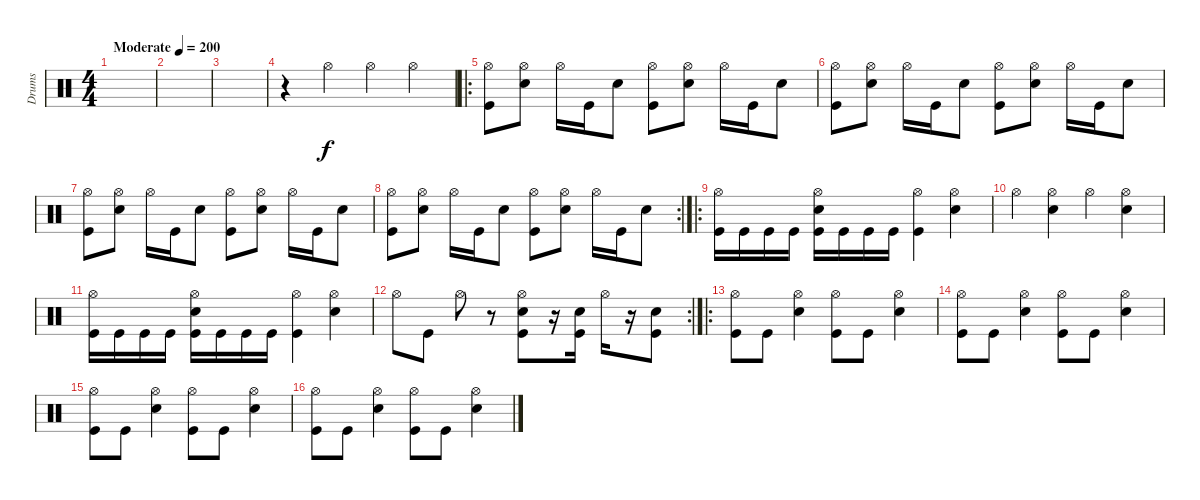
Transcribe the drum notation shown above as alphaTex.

\track ("Drums" "Drums") {instrument percussion}
\staff {score}
\articulation defaults
\ts (4 4)
\tempo (200 "Moderate")
\clef neutral
\ks c
|
|
|
r.4 "Hi-Hat (open)".4 "Hi-Hat (open)".4 "Hi-Hat (open)".4 |
\ro
("Hi-Hat (open)" "Kick (hit)").8 ("Hi-Hat (open)" "Snare (hit) 2").8 "Hi-Hat (open)".16 "Kick (hit)".16 "Snare (hit) 2".8 ("Hi-Hat (open)" "Kick (hit)").8 ("Hi-Hat (open)" "Snare (hit) 2").8 "Hi-Hat (open)".16 "Kick (hit)".16 "Snare (hit) 2".8 |
("Hi-Hat (open)" "Kick (hit)").8 ("Hi-Hat (open)" "Snare (hit) 2").8 "Hi-Hat (open)".16 "Kick (hit)".16 "Snare (hit) 2".8 ("Hi-Hat (open)" "Kick (hit)").8 ("Hi-Hat (open)" "Snare (hit) 2").8 "Hi-Hat (open)".16 "Kick (hit)".16 "Snare (hit) 2".8 |
("Hi-Hat (open)" "Kick (hit)").8 ("Hi-Hat (open)" "Snare (hit) 2").8 "Hi-Hat (open)".16 "Kick (hit)".16 "Snare (hit) 2".8 ("Hi-Hat (open)" "Kick (hit)").8 ("Hi-Hat (open)" "Snare (hit) 2").8 "Hi-Hat (open)".16 "Kick (hit)".16 "Snare (hit) 2".8 |
\rc 2
("Hi-Hat (open)" "Kick (hit)").8 ("Hi-Hat (open)" "Snare (hit) 2").8 "Hi-Hat (open)".16 "Kick (hit)".16 "Snare (hit) 2".8 ("Hi-Hat (open)" "Kick (hit)").8 ("Hi-Hat (open)" "Snare (hit) 2").8 "Hi-Hat (open)".16 "Kick (hit)".16 "Snare (hit) 2".8 |
\ro
("Hi-Hat (open)" "Kick (hit)").16 "Kick (hit)".16 "Kick (hit)".16 "Kick (hit)".16 ("Hi-Hat (open)" "Snare (hit) 2" "Kick (hit)").16 "Kick (hit)".16 "Kick (hit)".16 "Kick (hit)".16 ("Hi-Hat (open)" "Kick (hit)").4 ("Hi-Hat (open)" "Snare (hit) 2").4 |
"Hi-Hat (open)".4 ("Hi-Hat (open)" "Snare (hit) 2").4 "Hi-Hat (open)".4 ("Hi-Hat (open)" "Snare (hit) 2").4 |
("Hi-Hat (open)" "Kick (hit)").16 "Kick (hit)".16 "Kick (hit)".16 "Kick (hit)".16 ("Hi-Hat (open)" "Snare (hit) 2" "Kick (hit)").16 "Kick (hit)".16 "Kick (hit)".16 "Kick (hit)".16 ("Hi-Hat (open)" "Kick (hit)").4 ("Hi-Hat (open)" "Snare (hit) 2").4 |
\rc 2 "Hi-Hat (open)".8 "Kick (hit)".8 "Hi-Hat (open)".8
r.8 ("Hi-Hat (open)" "Snare (hit) 2" "Kick (hit)").8 r.16 ("Snare (hit) 2" "Kick (hit)").16 "Hi-Hat (open)".16 r.16 ("Snare (hit) 2" "Kick (hit)").8 |
\ro
("Hi-Hat (open)" "Kick (hit)").8 "Kick (hit)".8 ("Hi-Hat (open)" "Snare (hit) 2").4 ("Hi-Hat (open)" "Kick (hit)").8 "Kick (hit)".8 ("Hi-Hat (open)" "Snare (hit) 2").4 |
("Hi-Hat (open)" "Kick (hit)").8 "Kick (hit)".8 ("Hi-Hat (open)" "Snare (hit) 2").4 ("Hi-Hat (open)" "Kick (hit)").8 "Kick (hit)".8 ("Hi-Hat (open)" "Snare (hit) 2").4 |
("Hi-Hat (open)" "Kick (hit)").8 "Kick (hit)".8 ("Hi-Hat (open)" "Snare (hit) 2").4 ("Hi-Hat (open)" "Kick (hit)").8 "Kick (hit)".8 ("Hi-Hat (open)" "Snare (hit) 2").4 |
("Hi-Hat (open)" "Kick (hit)").8 "Kick (hit)".8 ("Hi-Hat (open)" "Snare (hit) 2").4 ("Hi-Hat (open)" "Kick (hit)").8 "Kick (hit)".8 ("Hi-Hat (open)" "Snare (hit) 2").4
